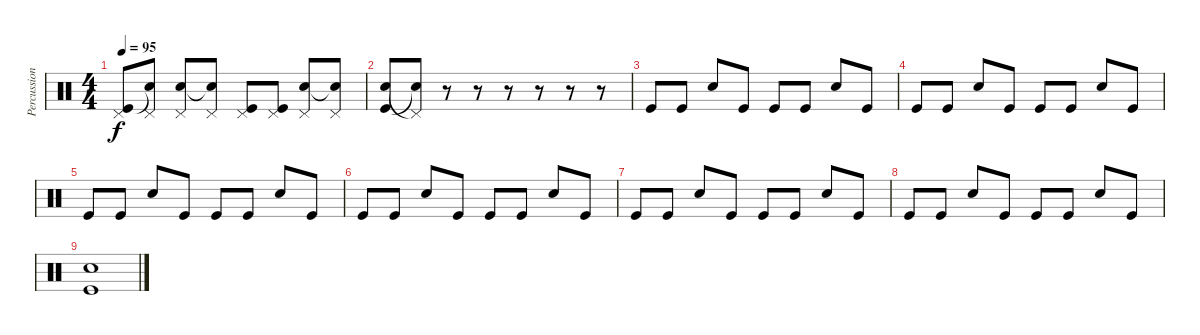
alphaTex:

\track ("Percussion" "Percussion") {instrument percussion}
\staff {score}
\articulation defaults
\ts (4 4)
\tempo 95
\clef neutral
\ks c
("Pedal Hi-Hat (hit)" "Kick (hit)").8{dy f} ("Pedal Hi-Hat (hit)" "Snare (hit)"{t}).8 ("Pedal Hi-Hat (hit)" "Snare (hit) 2").8 ("Pedal Hi-Hat (hit)" "Snare (hit)"{t}).8 ("Pedal Hi-Hat (hit)" "Kick (hit)").8 ("Pedal Hi-Hat (hit)" "Kick (hit)").8 ("Pedal Hi-Hat (hit)" "Snare (hit) 2").8 ("Pedal Hi-Hat (hit)" "Snare (hit)"{t}).8 |
("Snare (hit) 2" "Kick (hit)").8 ("Pedal Hi-Hat (hit)"{t} "Snare (hit)"{t}).8 r.8 r.8 r.8 r.8 r.8 r.8 |
"Kick (hit)".8 "Kick (hit)".8 "Electric Snare (hit)".8 "Kick (hit)".8 "Kick (hit)".8 "Kick (hit)".8 "Electric Snare (hit)".8 "Kick (hit)".8 |
"Kick (hit)".8 "Kick (hit)".8 "Electric Snare (hit)".8 "Kick (hit)".8 "Kick (hit)".8 "Kick (hit)".8 "Electric Snare (hit)".8 "Kick (hit)".8 |
"Kick (hit)".8 "Kick (hit)".8 "Electric Snare (hit)".8 "Kick (hit)".8 "Kick (hit)".8 "Kick (hit)".8 "Electric Snare (hit)".8 "Kick (hit)".8 |
"Kick (hit)".8 "Kick (hit)".8 "Electric Snare (hit)".8 "Kick (hit)".8 "Kick (hit)".8 "Kick (hit)".8 "Electric Snare (hit)".8 "Kick (hit)".8 |
"Kick (hit)".8 "Kick (hit)".8 "Electric Snare (hit)".8 "Kick (hit)".8 "Kick (hit)".8 "Kick (hit)".8 "Electric Snare (hit)".8 "Kick (hit)".8 |
"Kick (hit)".8 "Kick (hit)".8 "Electric Snare (hit)".8 "Kick (hit)".8 "Kick (hit)".8 "Kick (hit)".8 "Electric Snare (hit)".8 "Kick (hit)".8 |
("Electric Snare (hit)" "Kick (hit)").1
